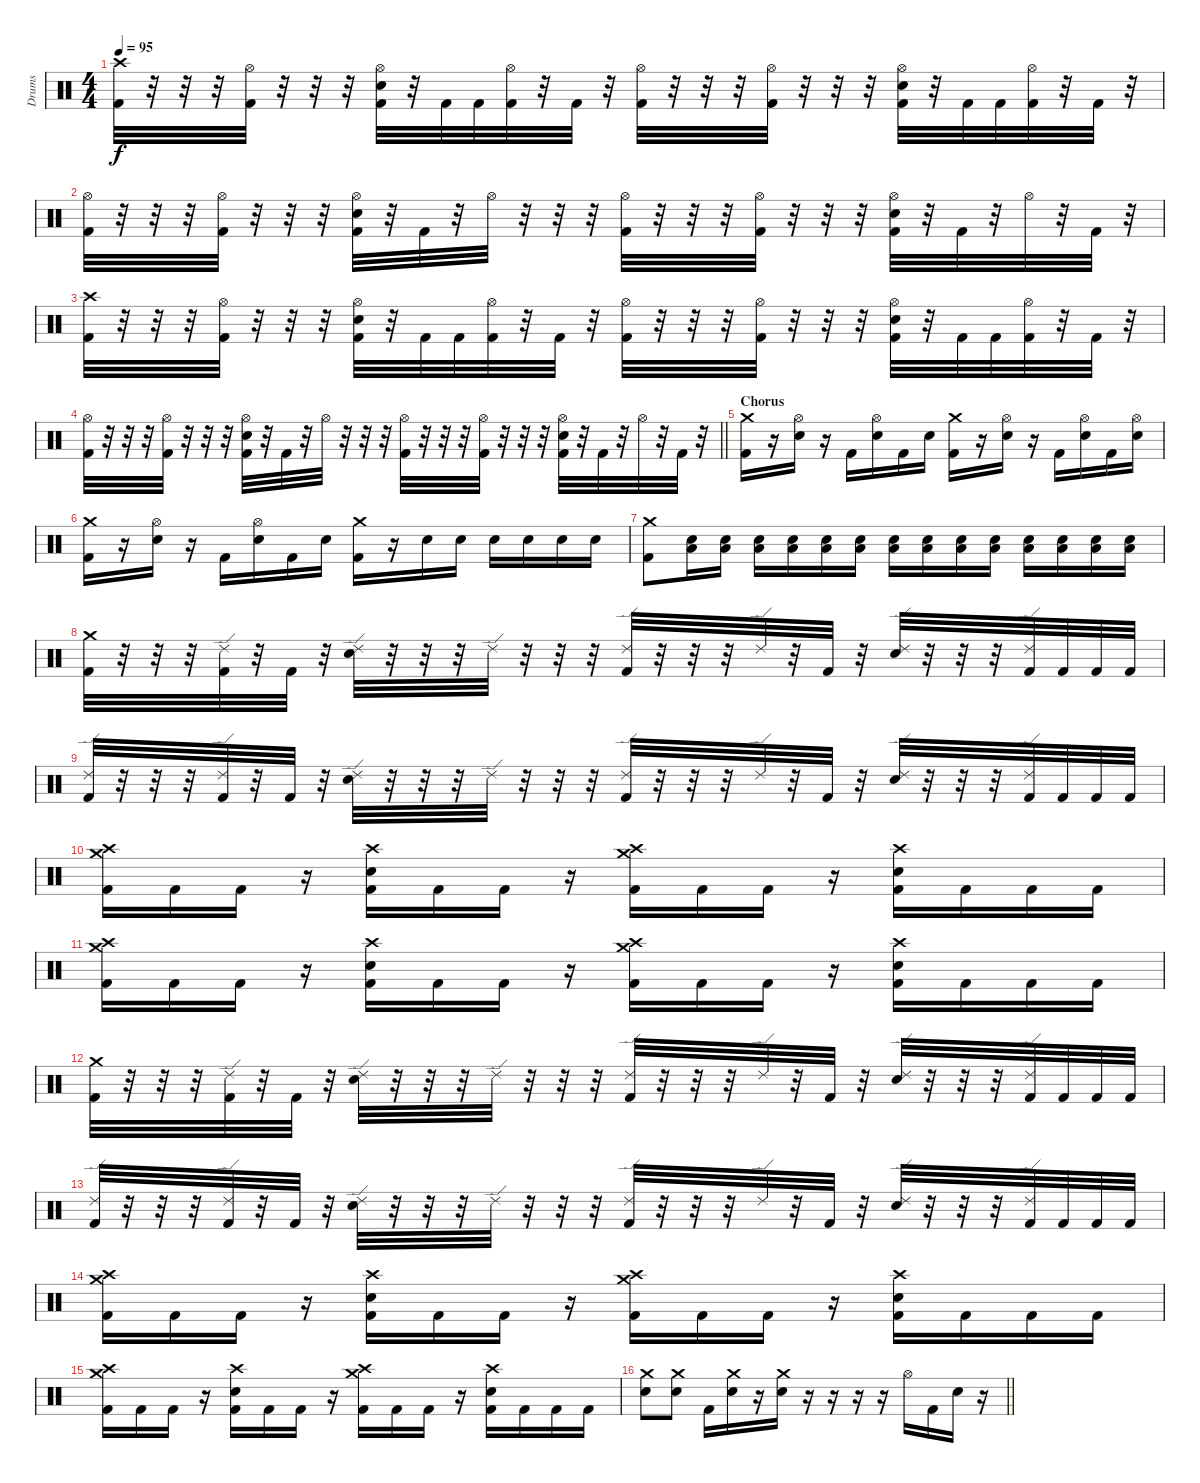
\track ("Drums" "Drums") {instrument percussion}
\staff {score}
\articulation defaults
\ts (4 4)
\tempo 95
\clef neutral
\ks c
("Crash high (hit)" "Kick (hit) 2").32{dy f} r.32 r.32 r.32 ("Hi-Hat (open)" "Kick (hit) 2").32 r.32 r.32 r.32 ("Hi-Hat (open)" "Electric Snare (hit)" "Kick (hit) 2").32 r.32 "Kick (hit) 2".32 "Kick (hit) 2".32 ("Hi-Hat (open)" "Kick (hit) 2").32 r.32 "Kick (hit) 2".32 r.32 ("Hi-Hat (open)" "Kick (hit) 2").32 r.32 r.32 r.32 ("Hi-Hat (open)" "Kick (hit) 2").32 r.32 r.32 r.32 ("Hi-Hat (open)" "Electric Snare (hit)" "Kick (hit) 2").32 r.32 "Kick (hit) 2".32 "Kick (hit) 2".32 ("Hi-Hat (open)" "Kick (hit) 2").32 r.32 "Kick (hit) 2".32 r.32 |
("Hi-Hat (open)" "Kick (hit) 2").32 r.32 r.32 r.32 ("Hi-Hat (open)" "Kick (hit) 2").32 r.32 r.32 r.32 ("Hi-Hat (open)" "Electric Snare (hit)" "Kick (hit) 2").32 r.32 "Kick (hit) 2".32 r.32 "Hi-Hat (open)".32 r.32 r.32 r.32 ("Hi-Hat (open)" "Kick (hit) 2").32 r.32 r.32 r.32 ("Hi-Hat (open)" "Kick (hit) 2").32 r.32 r.32 r.32 ("Hi-Hat (open)" "Electric Snare (hit)" "Kick (hit) 2").32 r.32 "Kick (hit) 2".32 r.32 "Hi-Hat (open)".32 r.32 "Kick (hit) 2".32 r.32 |
("Crash high (hit)" "Kick (hit) 2").32 r.32 r.32 r.32 ("Hi-Hat (open)" "Kick (hit) 2").32 r.32 r.32 r.32 ("Hi-Hat (open)" "Electric Snare (hit)" "Kick (hit) 2").32 r.32 "Kick (hit) 2".32 "Kick (hit) 2".32 ("Hi-Hat (open)" "Kick (hit) 2").32 r.32 "Kick (hit) 2".32 r.32 ("Hi-Hat (open)" "Kick (hit) 2").32 r.32 r.32 r.32 ("Hi-Hat (open)" "Kick (hit) 2").32 r.32 r.32 r.32 ("Hi-Hat (open)" "Electric Snare (hit)" "Kick (hit) 2").32 r.32 "Kick (hit) 2".32 "Kick (hit) 2".32 ("Hi-Hat (open)" "Kick (hit) 2").32 r.32 "Kick (hit) 2".32 r.32 |
\barLineRight lightlight
("Hi-Hat (open)" "Kick (hit) 2").32 r.32 r.32 r.32 ("Hi-Hat (open)" "Kick (hit) 2").32 r.32 r.32 r.32 ("Hi-Hat (open)" "Electric Snare (hit)" "Kick (hit) 2").32 r.32 "Kick (hit) 2".32 r.32 "Hi-Hat (open)".32 r.32 r.32 r.32 ("Hi-Hat (open)" "Kick (hit) 2").32 r.32 r.32 r.32 ("Hi-Hat (open)" "Kick (hit) 2").32 r.32 r.32 r.32 ("Hi-Hat (open)" "Electric Snare (hit)" "Kick (hit) 2").32 r.32 "Kick (hit) 2".32 r.32 "Hi-Hat (open)".32 r.32 "Kick (hit) 2".32 r.32 |
\section ("" "Chorus")
("Crash medium (hit)" "Kick (hit) 2").16 r.16 ("Hi-Hat (open)" "Electric Snare (hit)").16 r.16 "Kick (hit) 2".16 ("Hi-Hat (open)" "Electric Snare (hit)").16 "Kick (hit) 2".16 "Electric Snare (hit)".16 ("Crash medium (hit)" "Kick (hit) 2").16 r.16 ("Hi-Hat (open)" "Electric Snare (hit)").16 r.16 "Kick (hit) 2".16 ("Hi-Hat (open)" "Electric Snare (hit)").16 "Kick (hit) 2".16 ("Hi-Hat (open)" "Electric Snare (hit)").16 |
("Crash medium (hit)" "Kick (hit) 2").16 r.16 ("Hi-Hat (open)" "Electric Snare (hit)").16 r.16 "Kick (hit) 2".16 ("Hi-Hat (open)" "Electric Snare (hit)").16 "Kick (hit) 2".16 "Electric Snare (hit)".16 ("Crash medium (hit)" "Kick (hit) 2").16 r.16 "Electric Snare (hit)".16 "Electric Snare (hit)".16 "Electric Snare (hit)".16 "Electric Snare (hit)".16 "Electric Snare (hit)".16 "Electric Snare (hit)".16 |
("Crash medium (hit)" "Kick (hit) 2").8 ("Low Floor Tom (hit)" "Electric Snare (hit)").16 ("Low Floor Tom (hit)" "Electric Snare (hit)").16 ("Low Floor Tom (hit)" "Electric Snare (hit)").16 ("Low Floor Tom (hit)" "Electric Snare (hit)").16 ("Low Floor Tom (hit)" "Electric Snare (hit)").16 ("Low Floor Tom (hit)" "Electric Snare (hit)").16 ("Low Floor Tom (hit)" "Electric Snare (hit)").16 ("Low Floor Tom (hit)" "Electric Snare (hit)").16 ("Low Floor Tom (hit)" "Electric Snare (hit)").16 ("Low Floor Tom (hit)" "Electric Snare (hit)").16 ("Low Floor Tom (hit)" "Electric Snare (hit)").16 ("Low Floor Tom (hit)" "Electric Snare (hit)").16 ("Low Floor Tom (hit)" "Electric Snare (hit)").16 ("Low Floor Tom (hit)" "Electric Snare (hit)").16 |
("Crash medium (hit)" "Kick (hit) 2").32 r.32 r.32 r.32 ("Ride (edge) 2" "Kick (hit) 2").32 r.32 "Kick (hit) 2".32 r.32 ("Ride (edge) 2" "Electric Snare (hit)").32 r.32 r.32 r.32 "Ride (edge) 2".32 r.32 r.32 r.32 ("Ride (edge) 2" "Kick (hit) 2").32 r.32 r.32 r.32 "Ride (edge) 2".32 r.32 "Kick (hit) 2".32 r.32 ("Ride (edge) 2" "Electric Snare (hit)").32 r.32 r.32 r.32 ("Ride (edge) 2" "Kick (hit) 2").32 "Kick (hit) 2".32 "Kick (hit) 2".32 "Kick (hit) 2".32 |
("Ride (edge) 2" "Kick (hit) 2").32 r.32 r.32 r.32 ("Ride (edge) 2" "Kick (hit) 2").32 r.32 "Kick (hit) 2".32 r.32 ("Ride (edge) 2" "Electric Snare (hit)").32 r.32 r.32 r.32 "Ride (edge) 2".32 r.32 r.32 r.32 ("Ride (edge) 2" "Kick (hit) 2").32 r.32 r.32 r.32 "Ride (edge) 2".32 r.32 "Kick (hit) 2".32 r.32 ("Ride (edge) 2" "Electric Snare (hit)").32 r.32 r.32 r.32 ("Ride (edge) 2" "Kick (hit) 2").32 "Kick (hit) 2".32 "Kick (hit) 2".32 "Kick (hit) 2".32 |
("Crash medium (hit)" "Crash high (hit)" "Kick (hit) 2").16 "Kick (hit) 2".16 "Kick (hit) 2".16 r.16 ("Crash high (hit)" "Electric Snare (hit)" "Kick (hit) 2").16 "Kick (hit) 2".16 "Kick (hit) 2".16 r.16 ("Crash medium (hit)" "Crash high (hit)" "Kick (hit) 2").16 "Kick (hit) 2".16 "Kick (hit) 2".16 r.16 ("Crash high (hit)" "Electric Snare (hit)" "Kick (hit) 2").16 "Kick (hit) 2".16 "Kick (hit) 2".16 "Kick (hit) 2".16 |
("Crash medium (hit)" "Crash high (hit)" "Kick (hit) 2").16 "Kick (hit) 2".16 "Kick (hit) 2".16 r.16 ("Crash high (hit)" "Electric Snare (hit)" "Kick (hit) 2").16 "Kick (hit) 2".16 "Kick (hit) 2".16 r.16 ("Crash medium (hit)" "Crash high (hit)" "Kick (hit) 2").16 "Kick (hit) 2".16 "Kick (hit) 2".16 r.16 ("Crash high (hit)" "Electric Snare (hit)" "Kick (hit) 2").16 "Kick (hit) 2".16 "Kick (hit) 2".16 "Kick (hit) 2".16 |
("Crash medium (hit)" "Kick (hit) 2").32 r.32 r.32 r.32 ("Ride (edge) 2" "Kick (hit) 2").32 r.32 "Kick (hit) 2".32 r.32 ("Ride (edge) 2" "Electric Snare (hit)").32 r.32 r.32 r.32 "Ride (edge) 2".32 r.32 r.32 r.32 ("Ride (edge) 2" "Kick (hit) 2").32 r.32 r.32 r.32 "Ride (edge) 2".32 r.32 "Kick (hit) 2".32 r.32 ("Ride (edge) 2" "Electric Snare (hit)").32 r.32 r.32 r.32 ("Ride (edge) 2" "Kick (hit) 2").32 "Kick (hit) 2".32 "Kick (hit) 2".32 "Kick (hit) 2".32 |
("Ride (edge) 2" "Kick (hit) 2").32 r.32 r.32 r.32 ("Ride (edge) 2" "Kick (hit) 2").32 r.32 "Kick (hit) 2".32 r.32 ("Ride (edge) 2" "Electric Snare (hit)").32 r.32 r.32 r.32 "Ride (edge) 2".32 r.32 r.32 r.32 ("Ride (edge) 2" "Kick (hit) 2").32 r.32 r.32 r.32 "Ride (edge) 2".32 r.32 "Kick (hit) 2".32 r.32 ("Ride (edge) 2" "Electric Snare (hit)").32 r.32 r.32 r.32 ("Ride (edge) 2" "Kick (hit) 2").32 "Kick (hit) 2".32 "Kick (hit) 2".32 "Kick (hit) 2".32 |
("Crash medium (hit)" "Crash high (hit)" "Kick (hit) 2").16 "Kick (hit) 2".16 "Kick (hit) 2".16 r.16 ("Crash high (hit)" "Electric Snare (hit)" "Kick (hit) 2").16 "Kick (hit) 2".16 "Kick (hit) 2".16 r.16 ("Crash medium (hit)" "Crash high (hit)" "Kick (hit) 2").16 "Kick (hit) 2".16 "Kick (hit) 2".16 r.16 ("Crash high (hit)" "Electric Snare (hit)" "Kick (hit) 2").16 "Kick (hit) 2".16 "Kick (hit) 2".16 "Kick (hit) 2".16 |
("Crash medium (hit)" "Crash high (hit)" "Kick (hit) 2").16 "Kick (hit) 2".16 "Kick (hit) 2".16 r.16 ("Crash high (hit)" "Electric Snare (hit)" "Kick (hit) 2").16 "Kick (hit) 2".16 "Kick (hit) 2".16 r.16 ("Crash medium (hit)" "Crash high (hit)" "Kick (hit) 2").16 "Kick (hit) 2".16 "Kick (hit) 2".16 r.16 ("Crash high (hit)" "Electric Snare (hit)" "Kick (hit) 2").16 "Kick (hit) 2".16 "Kick (hit) 2".16 "Kick (hit) 2".16 |
\barLineRight lightlight
("Crash medium (hit)" "Electric Snare (hit)").8 ("Crash medium (hit)" "Electric Snare (hit)").8 "Kick (hit) 2".16 ("Crash medium (hit)" "Electric Snare (hit)").16 r.16 ("Crash medium (hit)" "Electric Snare (hit)").16 r.16 r.16 r.16 r.16 "Hi-Hat (open)".16 "Kick (hit) 2".16 "Electric Snare (hit)".16 r.16
